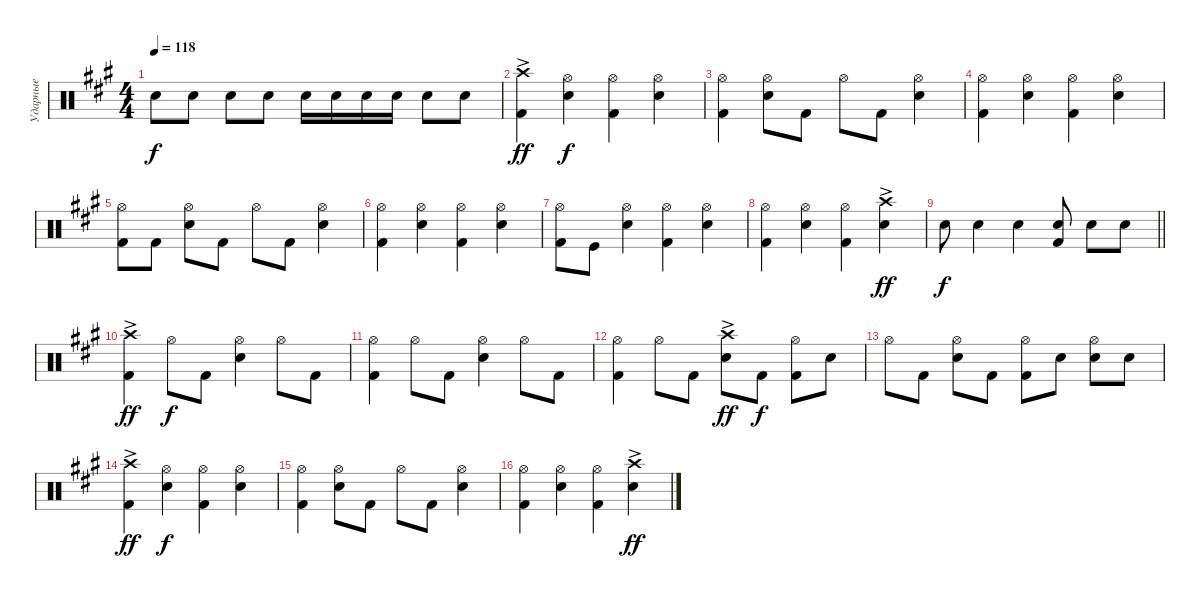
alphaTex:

\track ("Ударные" "Ударные") {instrument percussion}
\staff {score}
\articulation defaults
\ts (4 4)
\tempo 118
\clef neutral
\ks a "Snare (hit) 2".8{dy f} "Snare (hit) 2".8 "Snare (hit) 2".8 "Snare (hit) 2".8 "Snare (hit) 2".16 "Electric Snare (hit)".16 "Electric Snare (hit)".16 "Snare (hit) 2".16 "Snare (hit) 2".8 "Snare (hit) 2".8
|
("Kick (hit) 2" "Crash high (hit)"{ac}).4{dy ff} ("Snare (hit) 2" "Hi-Hat (open)").4{dy f} ("Kick (hit) 2" "Hi-Hat (open)").4 ("Snare (hit) 2" "Hi-Hat (open)").4 |
("Kick (hit) 2" "Hi-Hat (open)").4 ("Snare (hit) 2" "Hi-Hat (open)").8 "Kick (hit) 2".8 "Hi-Hat (open)".8 "Kick (hit) 2".8 ("Snare (hit) 2" "Hi-Hat (open)").4 |
("Kick (hit) 2" "Hi-Hat (open)").4 ("Snare (hit) 2" "Hi-Hat (open)").4 ("Kick (hit) 2" "Hi-Hat (open)").4 ("Snare (hit) 2" "Hi-Hat (open)").4 |
("Kick (hit) 2" "Hi-Hat (open)").8 "Kick (hit) 2".8 ("Snare (hit) 2" "Hi-Hat (open)").8 "Kick (hit) 2".8 "Hi-Hat (open)".8 "Kick (hit) 2".8 ("Snare (hit) 2" "Hi-Hat (open)").4 |
("Kick (hit) 2" "Hi-Hat (open)").4 ("Snare (hit) 2" "Hi-Hat (open)").4 ("Kick (hit) 2" "Hi-Hat (open)").4 ("Snare (hit) 2" "Hi-Hat (open)").4 |
("Kick (hit) 2" "Hi-Hat (open)").8 "Kick (hit)".8 ("Snare (hit) 2" "Hi-Hat (open)").4 ("Kick (hit) 2" "Hi-Hat (open)").4 ("Snare (hit) 2" "Hi-Hat (open)").4 |
("Kick (hit) 2" "Hi-Hat (open)").4 ("Snare (hit) 2" "Hi-Hat (open)").4 ("Kick (hit) 2" "Hi-Hat (open)").4 ("Snare (hit) 2" "Crash high (hit)"{ac}).4{dy ff} |
\barLineRight lightlight "Snare (hit) 2".8{dy f} "Snare (hit) 2".4 "Snare (hit) 2".4
("Kick (hit) 2" "Electric Snare (hit)").8 "Snare (hit) 2".8 "Snare (hit) 2".8 |
("Kick (hit) 2" "Crash high (hit)"{ac}).4{dy ff} "Hi-Hat (open)".8{dy f} "Kick (hit) 2".8 ("Snare (hit) 2" "Hi-Hat (open)").4 "Hi-Hat (open)".8 "Kick (hit) 2".8 |
("Kick (hit) 2" "Hi-Hat (open)").4 "Hi-Hat (open)".8 "Kick (hit) 2".8 ("Snare (hit) 2" "Hi-Hat (open)").4 "Hi-Hat (open)".8 "Kick (hit) 2".8 |
("Kick (hit) 2" "Hi-Hat (open)").4 "Hi-Hat (open)".8 "Kick (hit) 2".8 ("Snare (hit) 2" "Crash high (hit)"{ac}).8{dy ff} "Kick (hit) 2".8{dy f} ("Kick (hit) 2" "Hi-Hat (open)").8 "Snare (hit) 2".8 |
"Hi-Hat (open)".8 "Kick (hit) 2".8 ("Snare (hit) 2" "Hi-Hat (open)").8 "Kick (hit) 2".8 ("Kick (hit) 2" "Hi-Hat (open)").8 "Snare (hit) 2".8 ("Snare (hit) 2" "Hi-Hat (open)").8 "Snare (hit) 2".8 |
("Kick (hit) 2" "Crash high (hit)"{ac}).4{dy ff} ("Snare (hit) 2" "Hi-Hat (open)").4{dy f} ("Kick (hit) 2" "Hi-Hat (open)").4 ("Snare (hit) 2" "Hi-Hat (open)").4 |
("Kick (hit) 2" "Hi-Hat (open)").4 ("Snare (hit) 2" "Hi-Hat (open)").8 "Kick (hit) 2".8 "Hi-Hat (open)".8 "Kick (hit) 2".8 ("Snare (hit) 2" "Hi-Hat (open)").4 |
("Kick (hit) 2" "Hi-Hat (open)").4 ("Snare (hit) 2" "Hi-Hat (open)").4 ("Kick (hit) 2" "Hi-Hat (open)").4 ("Snare (hit) 2" "Crash high (hit)"{ac}).4{dy ff}
